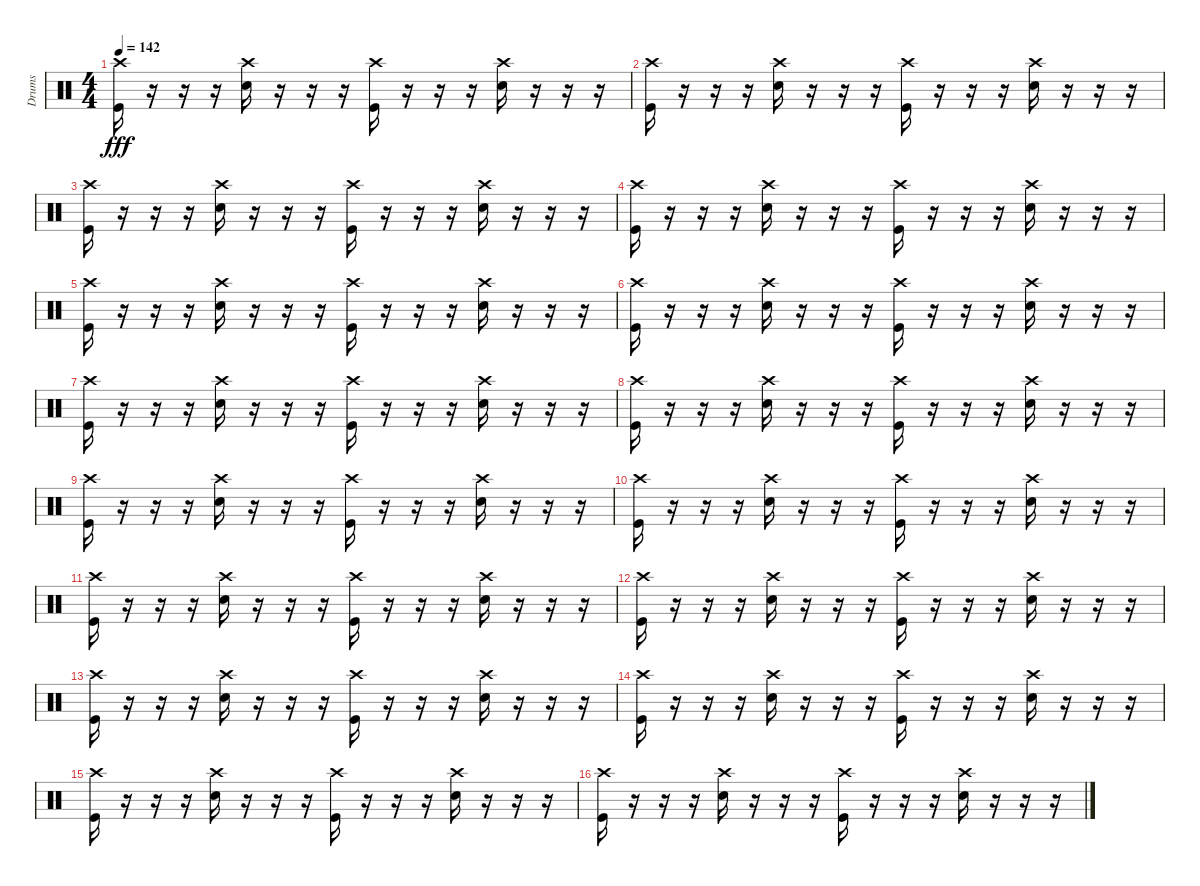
\track ("Drums" "Drums") {instrument percussion}
\staff {score}
\articulation defaults
\ts (4 4)
\tempo 142
\clef neutral
\ks c
("Kick (hit)" "Crash high (hit)").16{dy fff} r.16 r.16 r.16 ("Snare (hit) 2" "Crash high (hit)").16 r.16 r.16 r.16 ("Kick (hit)" "Crash high (hit)").16 r.16 r.16 r.16 ("Snare (hit) 2" "Crash high (hit)").16 r.16 r.16 r.16 |
("Kick (hit)" "Crash high (hit)").16 r.16 r.16 r.16 ("Snare (hit) 2" "Crash high (hit)").16 r.16 r.16 r.16 ("Kick (hit)" "Crash high (hit)").16 r.16 r.16 r.16 ("Snare (hit) 2" "Crash high (hit)").16 r.16 r.16 r.16 |
("Kick (hit)" "Crash high (hit)").16 r.16 r.16 r.16 ("Snare (hit) 2" "Crash high (hit)").16 r.16 r.16 r.16 ("Kick (hit)" "Crash high (hit)").16 r.16 r.16 r.16 ("Snare (hit) 2" "Crash high (hit)").16 r.16 r.16 r.16 |
("Kick (hit)" "Crash high (hit)").16 r.16 r.16 r.16 ("Snare (hit) 2" "Crash high (hit)").16 r.16 r.16 r.16 ("Kick (hit)" "Crash high (hit)").16 r.16 r.16 r.16 ("Snare (hit) 2" "Crash high (hit)").16 r.16 r.16 r.16 |
("Kick (hit)" "Crash high (hit)").16 r.16 r.16 r.16 ("Snare (hit) 2" "Crash high (hit)").16 r.16 r.16 r.16 ("Kick (hit)" "Crash high (hit)").16 r.16 r.16 r.16 ("Snare (hit) 2" "Crash high (hit)").16 r.16 r.16 r.16 |
("Kick (hit)" "Crash high (hit)").16 r.16 r.16 r.16 ("Snare (hit) 2" "Crash high (hit)").16 r.16 r.16 r.16 ("Kick (hit)" "Crash high (hit)").16 r.16 r.16 r.16 ("Snare (hit) 2" "Crash high (hit)").16 r.16 r.16 r.16 |
("Kick (hit)" "Crash high (hit)").16 r.16 r.16 r.16 ("Snare (hit) 2" "Crash high (hit)").16 r.16 r.16 r.16 ("Kick (hit)" "Crash high (hit)").16 r.16 r.16 r.16 ("Snare (hit) 2" "Crash high (hit)").16 r.16 r.16 r.16 |
("Kick (hit)" "Crash high (hit)").16 r.16 r.16 r.16 ("Snare (hit) 2" "Crash high (hit)").16 r.16 r.16 r.16 ("Kick (hit)" "Crash high (hit)").16 r.16 r.16 r.16 ("Snare (hit) 2" "Crash high (hit)").16 r.16 r.16 r.16 |
("Kick (hit)" "Crash high (hit)").16 r.16 r.16 r.16 ("Snare (hit) 2" "Crash high (hit)").16 r.16 r.16 r.16 ("Kick (hit)" "Crash high (hit)").16 r.16 r.16 r.16 ("Snare (hit) 2" "Crash high (hit)").16 r.16 r.16 r.16 |
("Kick (hit)" "Crash high (hit)").16 r.16 r.16 r.16 ("Snare (hit) 2" "Crash high (hit)").16 r.16 r.16 r.16 ("Kick (hit)" "Crash high (hit)").16 r.16 r.16 r.16 ("Snare (hit) 2" "Crash high (hit)").16 r.16 r.16 r.16 |
("Kick (hit)" "Crash high (hit)").16 r.16 r.16 r.16 ("Snare (hit) 2" "Crash high (hit)").16 r.16 r.16 r.16 ("Kick (hit)" "Crash high (hit)").16 r.16 r.16 r.16 ("Snare (hit) 2" "Crash high (hit)").16 r.16 r.16 r.16 |
("Kick (hit)" "Crash high (hit)").16 r.16 r.16 r.16 ("Snare (hit) 2" "Crash high (hit)").16 r.16 r.16 r.16 ("Kick (hit)" "Crash high (hit)").16 r.16 r.16 r.16 ("Snare (hit) 2" "Crash high (hit)").16 r.16 r.16 r.16 |
("Kick (hit)" "Crash high (hit)").16 r.16 r.16 r.16 ("Snare (hit) 2" "Crash high (hit)").16 r.16 r.16 r.16 ("Kick (hit)" "Crash high (hit)").16 r.16 r.16 r.16 ("Snare (hit) 2" "Crash high (hit)").16 r.16 r.16 r.16 |
("Kick (hit)" "Crash high (hit)").16 r.16 r.16 r.16 ("Snare (hit) 2" "Crash high (hit)").16 r.16 r.16 r.16 ("Kick (hit)" "Crash high (hit)").16 r.16 r.16 r.16 ("Snare (hit) 2" "Crash high (hit)").16 r.16 r.16 r.16 |
("Kick (hit)" "Crash high (hit)").16 r.16 r.16 r.16 ("Snare (hit) 2" "Crash high (hit)").16 r.16 r.16 r.16 ("Kick (hit)" "Crash high (hit)").16 r.16 r.16 r.16 ("Snare (hit) 2" "Crash high (hit)").16 r.16 r.16 r.16 |
("Kick (hit)" "Crash high (hit)").16 r.16 r.16 r.16 ("Snare (hit) 2" "Crash high (hit)").16 r.16 r.16 r.16 ("Kick (hit)" "Crash high (hit)").16 r.16 r.16 r.16 ("Snare (hit) 2" "Crash high (hit)").16 r.16 r.16 r.16
